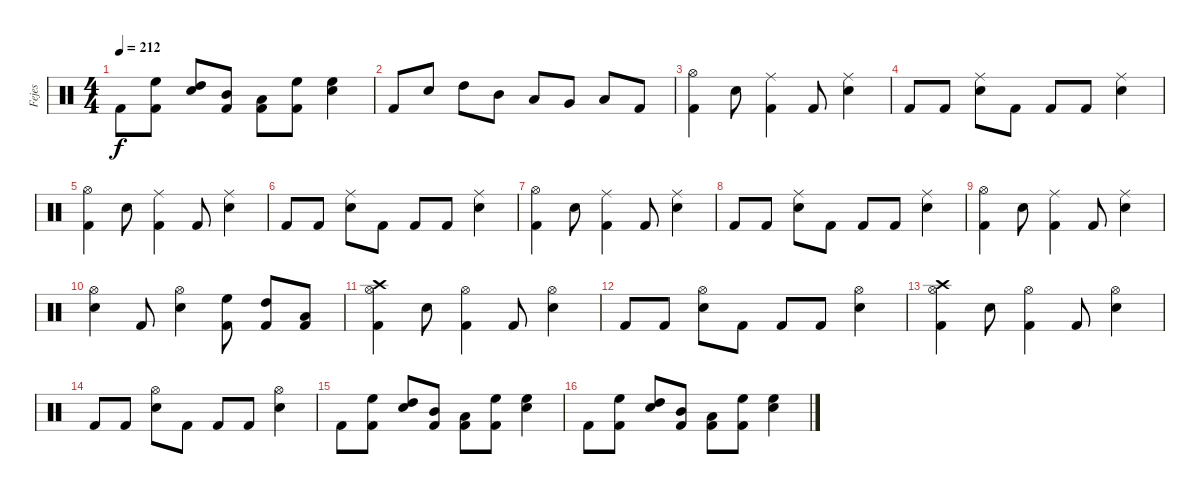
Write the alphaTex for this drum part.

\track ("Fejes" "Fejes") {instrument percussion}
\staff {score}
\articulation defaults
\ts (4 4)
\tempo 212
\clef neutral
\ks c "Kick (hit) 2".8{dy f}
("High Floor Tom (hit)" "Kick (hit) 2").8 ("High Tom (hit)" "Snare (hit) 2").8 ("Mid Tom (hit)" "Kick (hit) 2").8 ("Low Tom (hit)" "Kick (hit) 2").8 ("High Floor Tom (hit)" "Kick (hit) 2").8 ("High Floor Tom (hit)" "Snare (hit) 2").4 |
"Kick (hit) 2".8 "Snare (hit) 2".8 "High Tom (hit)".8 "Mid Tom (hit)".8 "Low Tom (hit)".8 "Very Low Tom (hit)".8 "Low Floor Tom (hit)".8 "Kick (hit) 2".8 |
("Hi-Hat (open)" "Kick (hit) 2").4 "Snare (hit) 2".8 ("Ride (middle)" "Kick (hit) 2").4 "Kick (hit) 2".8 ("Ride (middle)" "Snare (hit) 2").4 |
"Kick (hit) 2".8 "Kick (hit) 2".8 ("Ride (middle)" "Snare (hit) 2").8 "Kick (hit) 2".8 "Kick (hit) 2".8 "Kick (hit) 2".8 ("Ride (middle)" "Snare (hit) 2").4 |
("Hi-Hat (open)" "Kick (hit) 2").4 "Snare (hit) 2".8 ("Ride (middle)" "Kick (hit) 2").4 "Kick (hit) 2".8 ("Ride (middle)" "Snare (hit) 2").4 |
"Kick (hit) 2".8 "Kick (hit) 2".8 ("Ride (middle)" "Snare (hit) 2").8 "Kick (hit) 2".8 "Kick (hit) 2".8 "Kick (hit) 2".8 ("Ride (middle)" "Snare (hit) 2").4 |
("Hi-Hat (open)" "Kick (hit) 2").4 "Snare (hit) 2".8 ("Ride (middle)" "Kick (hit) 2").4 "Kick (hit) 2".8 ("Ride (middle)" "Snare (hit) 2").4 |
"Kick (hit) 2".8 "Kick (hit) 2".8 ("Ride (middle)" "Snare (hit) 2").8 "Kick (hit) 2".8 "Kick (hit) 2".8 "Kick (hit) 2".8 ("Ride (middle)" "Snare (hit) 2").4 |
("Hi-Hat (open)" "Kick (hit) 2").4 "Snare (hit) 2".8 ("Ride (middle)" "Kick (hit) 2").4 "Kick (hit) 2".8 ("Ride (middle)" "Snare (hit) 2").4 |
("Hi-Hat (open)" "Snare (hit) 2").4 "Kick (hit) 2".8 ("Hi-Hat (open)" "Snare (hit) 2").4 ("High Floor Tom (hit)" "Kick (hit) 2").8 ("High Tom (hit)" "Kick (hit) 2").8 ("Low Tom (hit)" "Kick (hit) 2").8 |
("Crash high (hit)" "Hi-Hat (open)" "Kick (hit) 2").4 "Snare (hit) 2".8 ("Hi-Hat (open)" "Kick (hit) 2").4 "Kick (hit) 2".8 ("Hi-Hat (open)" "Snare (hit) 2").4 |
"Kick (hit) 2".8 "Kick (hit) 2".8 ("Hi-Hat (open)" "Snare (hit) 2").8 "Kick (hit) 2".8 "Kick (hit) 2".8 "Kick (hit) 2".8 ("Hi-Hat (open)" "Snare (hit) 2").4 |
("Crash high (hit)" "Hi-Hat (open)" "Kick (hit) 2").4 "Snare (hit) 2".8 ("Hi-Hat (open)" "Kick (hit) 2").4 "Kick (hit) 2".8 ("Hi-Hat (open)" "Snare (hit) 2").4 |
"Kick (hit) 2".8 "Kick (hit) 2".8 ("Hi-Hat (open)" "Snare (hit) 2").8 "Kick (hit) 2".8 "Kick (hit) 2".8 "Kick (hit) 2".8 ("Hi-Hat (open)" "Snare (hit) 2").4 |
"Kick (hit) 2".8 ("High Floor Tom (hit)" "Kick (hit) 2").8 ("High Tom (hit)" "Snare (hit) 2").8 ("Mid Tom (hit)" "Kick (hit) 2").8 ("Low Tom (hit)" "Kick (hit) 2").8 ("High Floor Tom (hit)" "Kick (hit) 2").8 ("High Floor Tom (hit)" "Snare (hit) 2").4 |
"Kick (hit) 2".8 ("High Floor Tom (hit)" "Kick (hit) 2").8 ("High Tom (hit)" "Snare (hit) 2").8 ("Mid Tom (hit)" "Kick (hit) 2").8 ("Low Tom (hit)" "Kick (hit) 2").8 ("High Floor Tom (hit)" "Kick (hit) 2").8 ("High Floor Tom (hit)" "Snare (hit) 2").4
